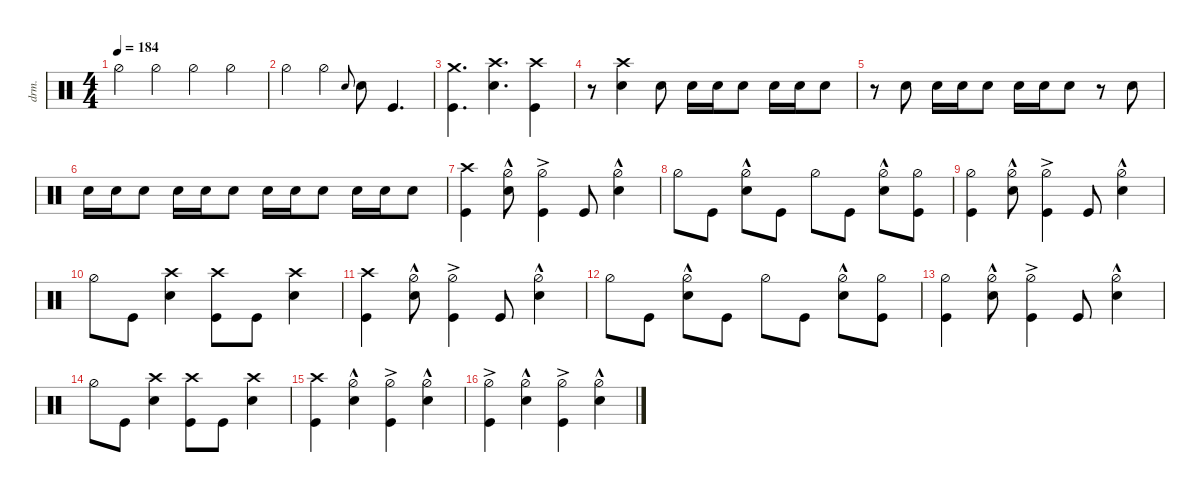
\defaultSystemsLayout 4
\hideDynamics
\bracketExtendMode nobrackets
\otherSystemsTrackNameOrientation horizontal
\track ("Drums" "drm.") {defaultSystemsLayout 4 multiBarRest instrument percussion}
\staff {score}
\articulation defaults
\ts (4 4)
\tempo 184
\clef neutral
\ks c "Hi-Hat (half)".4{dy f} "Hi-Hat (half)".4 "Hi-Hat (half)".4 "Hi-Hat (half)".4
|
"Hi-Hat (half)".4 "Hi-Hat (half)".4 "Snare (hit) 2".8{gr onbeat} "Snare (hit) 2".8 "Kick (hit)".4{d} |
("Crash medium (hit)" "Kick (hit)").4{d} ("Snare (hit) 2" "Crash high (hit)").4{d} ("Crash high (hit)" "Kick (hit)").4 |
r.8 ("Snare (hit) 2" "Crash high (hit)").4 "Snare (hit) 2".8 "Snare (hit) 2".16 "Snare (hit) 2".16 "Snare (hit) 2".8 "Snare (hit) 2".16 "Snare (hit) 2".16 "Snare (hit) 2".8 |
r.8 "Snare (hit) 2".8 "Snare (hit) 2".16 "Snare (hit) 2".16 "Snare (hit) 2".8 "Snare (hit) 2".16 "Snare (hit) 2".16 "Snare (hit) 2".8 r.8 "Snare (hit) 2".8 |
"Snare (hit) 2".16 "Snare (hit) 2".16 "Snare (hit) 2".8 "Snare (hit) 2".16 "Snare (hit) 2".16 "Snare (hit) 2".8 "Snare (hit) 2".16 "Snare (hit) 2".16 "Snare (hit) 2".8 "Snare (hit) 2".16 "Snare (hit) 2".16 "Snare (hit) 2".8 |
("Crash high (hit)" "Kick (hit)").4 ("Hi-Hat (half)"{hac} "Snare (hit) 2").8 ("Kick (hit)" "Hi-Hat (half)"{ac}).4 "Kick (hit)".8 ("Hi-Hat (half)"{hac} "Snare (hit) 2").4 |
"Hi-Hat (half)".8 "Kick (hit)".8 ("Hi-Hat (half)"{hac} "Snare (hit) 2").8 "Kick (hit)".8 "Hi-Hat (half)".8 "Kick (hit)".8 ("Hi-Hat (half)"{hac} "Snare (hit) 2").8 ("Kick (hit)" "Hi-Hat (half)").8 |
("Kick (hit)" "Hi-Hat (half)").4 ("Hi-Hat (half)"{hac} "Snare (hit) 2").8 ("Kick (hit)" "Hi-Hat (half)"{ac}).4 "Kick (hit)".8 ("Hi-Hat (half)"{hac} "Snare (hit) 2").4 |
"Hi-Hat (half)".8 "Kick (hit)".8 ("Snare (hit) 2" "Crash high (hit)").4 ("Kick (hit)" "Crash high (hit)").8 "Kick (hit)".8 ("Snare (hit) 2" "Crash high (hit)").4 |
("Crash high (hit)" "Kick (hit)").4 ("Hi-Hat (half)"{hac} "Snare (hit) 2").8 ("Kick (hit)" "Hi-Hat (half)"{ac}).4 "Kick (hit)".8 ("Hi-Hat (half)"{hac} "Snare (hit) 2").4 |
"Hi-Hat (half)".8 "Kick (hit)".8 ("Hi-Hat (half)"{hac} "Snare (hit) 2").8 "Kick (hit)".8 "Hi-Hat (half)".8 "Kick (hit)".8 ("Hi-Hat (half)"{hac} "Snare (hit) 2").8 ("Kick (hit)" "Hi-Hat (half)").8 |
("Kick (hit)" "Hi-Hat (half)").4 ("Hi-Hat (half)"{hac} "Snare (hit) 2").8 ("Kick (hit)" "Hi-Hat (half)"{ac}).4 "Kick (hit)".8 ("Hi-Hat (half)"{hac} "Snare (hit) 2").4 |
"Hi-Hat (half)".8 "Kick (hit)".8 ("Snare (hit) 2" "Crash high (hit)").4 ("Kick (hit)" "Crash high (hit)").8 "Kick (hit)".8 ("Snare (hit) 2" "Crash high (hit)").4 |
("Crash high (hit)" "Kick (hit)").4 ("Hi-Hat (half)"{hac} "Snare (hit) 2").4 ("Hi-Hat (half)"{ac} "Kick (hit)").4 ("Hi-Hat (half)"{hac} "Snare (hit) 2").4 |
("Hi-Hat (half)"{ac} "Kick (hit)").4 ("Hi-Hat (half)"{hac} "Snare (hit) 2").4 ("Hi-Hat (half)"{ac} "Kick (hit)").4 ("Hi-Hat (half)"{hac} "Snare (hit) 2").4
